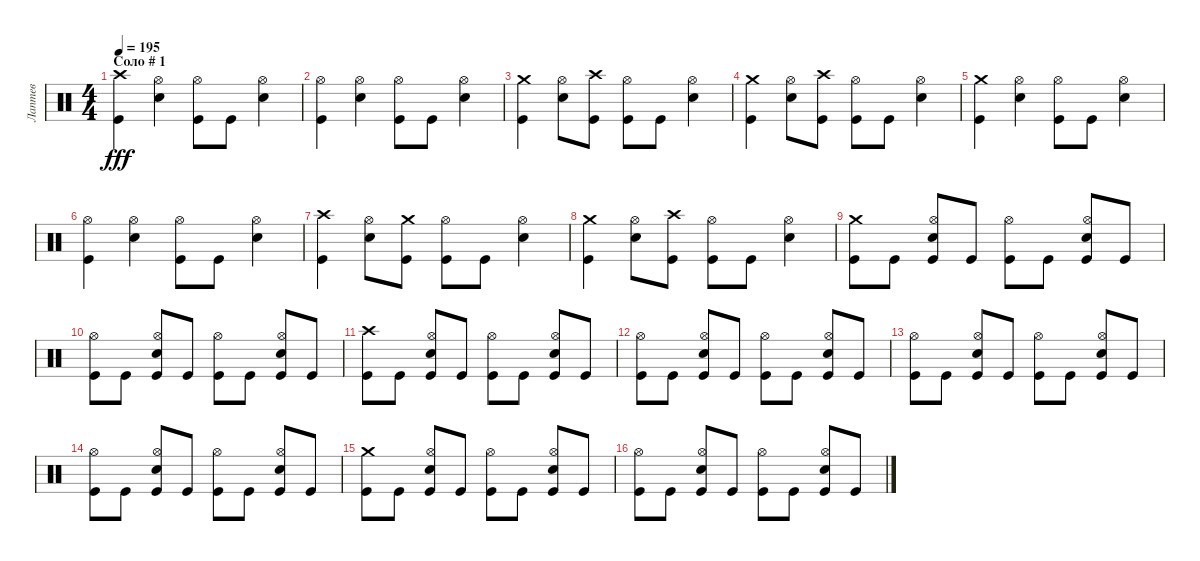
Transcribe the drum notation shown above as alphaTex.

\track ("Лаптев" "Лаптев") {instrument percussion}
\staff {score}
\articulation defaults
\ts (4 4)
\section ("" "Соло # 1")
\tempo 195
\clef neutral
\ks c
("Crash high (hit)" "Kick (hit)").4{dy fff} ("Hi-Hat (open)" "Electric Snare (hit)").4 ("Hi-Hat (open)" "Kick (hit)").8 "Kick (hit)".8 ("Hi-Hat (open)" "Electric Snare (hit)").4 |
("Hi-Hat (open)" "Kick (hit)").4 ("Hi-Hat (open)" "Electric Snare (hit)").4 ("Hi-Hat (open)" "Kick (hit)").8 "Kick (hit)".8 ("Hi-Hat (open)" "Electric Snare (hit)").4 |
("Crash medium (hit)" "Kick (hit)").4 ("Hi-Hat (open)" "Electric Snare (hit)").8 ("Crash high (hit)" "Kick (hit)").8 ("Hi-Hat (open)" "Kick (hit)").8 "Kick (hit)".8 ("Hi-Hat (open)" "Electric Snare (hit)").4 |
("Crash medium (hit)" "Kick (hit)").4 ("Hi-Hat (open)" "Electric Snare (hit)").8 ("Crash high (hit)" "Kick (hit)").8 ("Hi-Hat (open)" "Kick (hit)").8 "Kick (hit)".8 ("Hi-Hat (open)" "Electric Snare (hit)").4 |
("Crash medium (hit)" "Kick (hit)").4 ("Hi-Hat (open)" "Electric Snare (hit)").4 ("Hi-Hat (open)" "Kick (hit)").8 "Kick (hit)".8 ("Hi-Hat (open)" "Electric Snare (hit)").4 |
("Hi-Hat (open)" "Kick (hit)").4 ("Hi-Hat (open)" "Electric Snare (hit)").4 ("Hi-Hat (open)" "Kick (hit)").8 "Kick (hit)".8 ("Hi-Hat (open)" "Electric Snare (hit)").4 |
("Crash high (hit)" "Kick (hit)").4 ("Hi-Hat (open)" "Electric Snare (hit)").8 ("Crash medium (hit)" "Kick (hit)").8 ("Hi-Hat (open)" "Kick (hit)").8 "Kick (hit)".8 ("Hi-Hat (open)" "Electric Snare (hit)").4 |
("Crash medium (hit)" "Kick (hit)").4 ("Hi-Hat (open)" "Electric Snare (hit)").8 ("Crash high (hit)" "Kick (hit)").8 ("Hi-Hat (open)" "Kick (hit)").8 "Kick (hit)".8 ("Hi-Hat (open)" "Electric Snare (hit)").4 |
("Crash medium (hit)" "Kick (hit)").8 "Kick (hit)".8 ("Hi-Hat (open)" "Electric Snare (hit)" "Kick (hit)").8 "Kick (hit)".8 ("Hi-Hat (open)" "Kick (hit)").8 "Kick (hit)".8 ("Hi-Hat (open)" "Electric Snare (hit)" "Kick (hit)").8 "Kick (hit)".8 |
("Hi-Hat (open)" "Kick (hit)").8 "Kick (hit)".8 ("Hi-Hat (open)" "Electric Snare (hit)" "Kick (hit)").8 "Kick (hit)".8 ("Hi-Hat (open)" "Kick (hit)").8 "Kick (hit)".8 ("Hi-Hat (open)" "Electric Snare (hit)" "Kick (hit)").8 "Kick (hit)".8 |
("Crash high (hit)" "Kick (hit)").8 "Kick (hit)".8 ("Hi-Hat (open)" "Electric Snare (hit)" "Kick (hit)").8 "Kick (hit)".8 ("Hi-Hat (open)" "Kick (hit)").8 "Kick (hit)".8 ("Hi-Hat (open)" "Electric Snare (hit)" "Kick (hit)").8 "Kick (hit)".8 |
("Hi-Hat (open)" "Kick (hit)").8 "Kick (hit)".8 ("Hi-Hat (open)" "Electric Snare (hit)" "Kick (hit)").8 "Kick (hit)".8 ("Hi-Hat (open)" "Kick (hit)").8 "Kick (hit)".8 ("Hi-Hat (open)" "Electric Snare (hit)" "Kick (hit)").8 "Kick (hit)".8 |
("Hi-Hat (open)" "Kick (hit)").8 "Kick (hit)".8 ("Hi-Hat (open)" "Electric Snare (hit)" "Kick (hit)").8 "Kick (hit)".8 ("Hi-Hat (open)" "Kick (hit)").8 "Kick (hit)".8 ("Hi-Hat (open)" "Electric Snare (hit)" "Kick (hit)").8 "Kick (hit)".8 |
("Hi-Hat (open)" "Kick (hit)").8 "Kick (hit)".8 ("Hi-Hat (open)" "Electric Snare (hit)" "Kick (hit)").8 "Kick (hit)".8 ("Hi-Hat (open)" "Kick (hit)").8 "Kick (hit)".8 ("Hi-Hat (open)" "Electric Snare (hit)" "Kick (hit)").8 "Kick (hit)".8 |
("Crash medium (hit)" "Kick (hit)").8 "Kick (hit)".8 ("Hi-Hat (open)" "Electric Snare (hit)" "Kick (hit)").8 "Kick (hit)".8 ("Hi-Hat (open)" "Kick (hit)").8 "Kick (hit)".8 ("Hi-Hat (open)" "Electric Snare (hit)" "Kick (hit)").8 "Kick (hit)".8 |
("Hi-Hat (open)" "Kick (hit)").8 "Kick (hit)".8 ("Hi-Hat (open)" "Electric Snare (hit)" "Kick (hit)").8 "Kick (hit)".8 ("Hi-Hat (open)" "Kick (hit)").8 "Kick (hit)".8 ("Hi-Hat (open)" "Electric Snare (hit)" "Kick (hit)").8 "Kick (hit)".8
